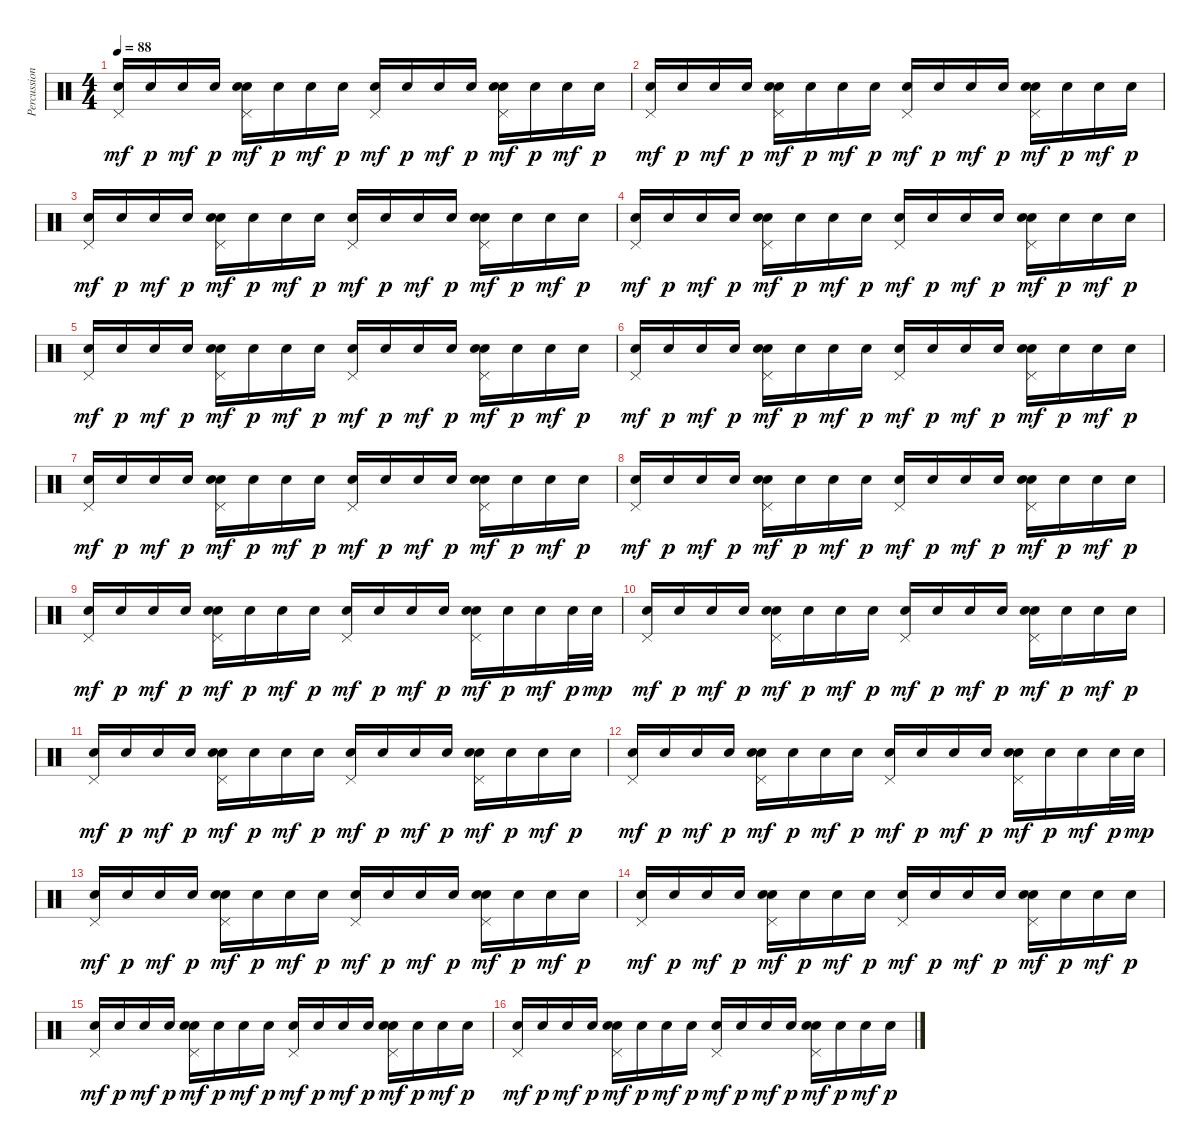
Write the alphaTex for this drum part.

\track ("Percussion" "Percussion") {instrument percussion}
\staff {score}
\articulation defaults
\ts (4 4)
\tempo 88
\clef neutral
\ks c
("Snare (hit) 2" "Pedal Hi-Hat (hit)").16{dy mf} "Snare (hit) 2".16{dy p} "Snare (hit) 2".16{dy mf} "Snare (hit) 2".16{dy p} ("Hand Clap (hit)" "Snare (hit) 2" "Pedal Hi-Hat (hit)").16{dy mf} "Snare (hit) 2".16{dy p} "Snare (hit) 2".16{dy mf} "Snare (hit) 2".16{dy p} ("Snare (hit) 2" "Pedal Hi-Hat (hit)").16{dy mf} "Snare (hit) 2".16{dy p} "Snare (hit) 2".16{dy mf} "Snare (hit) 2".16{dy p} ("Snare (hit) 2" "Hand Clap (hit)" "Pedal Hi-Hat (hit)").16{dy mf} "Snare (hit) 2".16{dy p} "Snare (hit) 2".16{dy mf} "Snare (hit) 2".16{dy p} |
("Snare (hit) 2" "Pedal Hi-Hat (hit)").16{dy mf} "Snare (hit) 2".16{dy p} "Snare (hit) 2".16{dy mf} "Snare (hit) 2".16{dy p} ("Hand Clap (hit)" "Snare (hit) 2" "Pedal Hi-Hat (hit)").16{dy mf} "Snare (hit) 2".16{dy p} "Snare (hit) 2".16{dy mf} "Snare (hit) 2".16{dy p} ("Snare (hit) 2" "Pedal Hi-Hat (hit)").16{dy mf} "Snare (hit) 2".16{dy p} "Snare (hit) 2".16{dy mf} "Snare (hit) 2".16{dy p} ("Snare (hit) 2" "Hand Clap (hit)" "Pedal Hi-Hat (hit)").16{dy mf} "Snare (hit) 2".16{dy p} "Snare (hit) 2".16{dy mf} "Snare (hit) 2".16{dy p} |
("Snare (hit) 2" "Pedal Hi-Hat (hit)").16{dy mf} "Snare (hit) 2".16{dy p} "Snare (hit) 2".16{dy mf} "Snare (hit) 2".16{dy p} ("Hand Clap (hit)" "Snare (hit) 2" "Pedal Hi-Hat (hit)").16{dy mf} "Snare (hit) 2".16{dy p} "Snare (hit) 2".16{dy mf} "Snare (hit) 2".16{dy p} ("Snare (hit) 2" "Pedal Hi-Hat (hit)").16{dy mf} "Snare (hit) 2".16{dy p} "Snare (hit) 2".16{dy mf} "Snare (hit) 2".16{dy p} ("Snare (hit) 2" "Hand Clap (hit)" "Pedal Hi-Hat (hit)").16{dy mf} "Snare (hit) 2".16{dy p} "Snare (hit) 2".16{dy mf} "Snare (hit) 2".16{dy p} |
("Snare (hit) 2" "Pedal Hi-Hat (hit)").16{dy mf} "Snare (hit) 2".16{dy p} "Snare (hit) 2".16{dy mf} "Snare (hit) 2".16{dy p} ("Hand Clap (hit)" "Snare (hit) 2" "Pedal Hi-Hat (hit)").16{dy mf} "Snare (hit) 2".16{dy p} "Snare (hit) 2".16{dy mf} "Snare (hit) 2".16{dy p} ("Snare (hit) 2" "Pedal Hi-Hat (hit)").16{dy mf} "Snare (hit) 2".16{dy p} "Snare (hit) 2".16{dy mf} "Snare (hit) 2".16{dy p} ("Snare (hit) 2" "Hand Clap (hit)" "Pedal Hi-Hat (hit)").16{dy mf} "Snare (hit) 2".16{dy p} "Snare (hit) 2".16{dy mf} "Snare (hit) 2".16{dy p} |
("Snare (hit) 2" "Pedal Hi-Hat (hit)").16{dy mf} "Snare (hit) 2".16{dy p} "Snare (hit) 2".16{dy mf} "Snare (hit) 2".16{dy p} ("Hand Clap (hit)" "Snare (hit) 2" "Pedal Hi-Hat (hit)").16{dy mf} "Snare (hit) 2".16{dy p} "Snare (hit) 2".16{dy mf} "Snare (hit) 2".16{dy p} ("Snare (hit) 2" "Pedal Hi-Hat (hit)").16{dy mf} "Snare (hit) 2".16{dy p} "Snare (hit) 2".16{dy mf} "Snare (hit) 2".16{dy p} ("Snare (hit) 2" "Hand Clap (hit)" "Pedal Hi-Hat (hit)").16{dy mf} "Snare (hit) 2".16{dy p} "Snare (hit) 2".16{dy mf} "Snare (hit) 2".16{dy p} |
("Snare (hit) 2" "Pedal Hi-Hat (hit)").16{dy mf} "Snare (hit) 2".16{dy p} "Snare (hit) 2".16{dy mf} "Snare (hit) 2".16{dy p} ("Hand Clap (hit)" "Snare (hit) 2" "Pedal Hi-Hat (hit)").16{dy mf} "Snare (hit) 2".16{dy p} "Snare (hit) 2".16{dy mf} "Snare (hit) 2".16{dy p} ("Snare (hit) 2" "Pedal Hi-Hat (hit)").16{dy mf} "Snare (hit) 2".16{dy p} "Snare (hit) 2".16{dy mf} "Snare (hit) 2".16{dy p} ("Snare (hit) 2" "Hand Clap (hit)" "Pedal Hi-Hat (hit)").16{dy mf} "Snare (hit) 2".16{dy p} "Snare (hit) 2".16{dy mf} "Snare (hit) 2".16{dy p} |
("Snare (hit) 2" "Pedal Hi-Hat (hit)").16{dy mf} "Snare (hit) 2".16{dy p} "Snare (hit) 2".16{dy mf} "Snare (hit) 2".16{dy p} ("Hand Clap (hit)" "Snare (hit) 2" "Pedal Hi-Hat (hit)").16{dy mf} "Snare (hit) 2".16{dy p} "Snare (hit) 2".16{dy mf} "Snare (hit) 2".16{dy p} ("Snare (hit) 2" "Pedal Hi-Hat (hit)").16{dy mf} "Snare (hit) 2".16{dy p} "Snare (hit) 2".16{dy mf} "Snare (hit) 2".16{dy p} ("Snare (hit) 2" "Hand Clap (hit)" "Pedal Hi-Hat (hit)").16{dy mf} "Snare (hit) 2".16{dy p} "Snare (hit) 2".16{dy mf} "Snare (hit) 2".16{dy p} |
("Snare (hit) 2" "Pedal Hi-Hat (hit)").16{dy mf} "Snare (hit) 2".16{dy p} "Snare (hit) 2".16{dy mf} "Snare (hit) 2".16{dy p} ("Hand Clap (hit)" "Snare (hit) 2" "Pedal Hi-Hat (hit)").16{dy mf} "Snare (hit) 2".16{dy p} "Snare (hit) 2".16{dy mf} "Snare (hit) 2".16{dy p} ("Snare (hit) 2" "Pedal Hi-Hat (hit)").16{dy mf} "Snare (hit) 2".16{dy p} "Snare (hit) 2".16{dy mf} "Snare (hit) 2".16{dy p} ("Snare (hit) 2" "Hand Clap (hit)" "Pedal Hi-Hat (hit)").16{dy mf} "Snare (hit) 2".16{dy p} "Snare (hit) 2".16{dy mf} "Snare (hit) 2".16{dy p} |
("Snare (hit) 2" "Pedal Hi-Hat (hit)").16{dy mf} "Snare (hit) 2".16{dy p} "Snare (hit) 2".16{dy mf} "Snare (hit) 2".16{dy p} ("Hand Clap (hit)" "Snare (hit) 2" "Pedal Hi-Hat (hit)").16{dy mf} "Snare (hit) 2".16{dy p} "Snare (hit) 2".16{dy mf} "Snare (hit) 2".16{dy p} ("Snare (hit) 2" "Pedal Hi-Hat (hit)").16{dy mf} "Snare (hit) 2".16{dy p} "Snare (hit) 2".16{dy mf} "Snare (hit) 2".16{dy p} ("Snare (hit) 2" "Hand Clap (hit)" "Pedal Hi-Hat (hit)").16{dy mf} "Snare (hit) 2".16{dy p} "Snare (hit) 2".16{dy mf} "Snare (hit) 2".32{dy p} "Snare (hit) 2".32{dy mp} |
("Snare (hit) 2" "Pedal Hi-Hat (hit)").16{dy mf} "Snare (hit) 2".16{dy p} "Snare (hit) 2".16{dy mf} "Snare (hit) 2".16{dy p} ("Hand Clap (hit)" "Snare (hit) 2" "Pedal Hi-Hat (hit)").16{dy mf} "Snare (hit) 2".16{dy p} "Snare (hit) 2".16{dy mf} "Snare (hit) 2".16{dy p} ("Snare (hit) 2" "Pedal Hi-Hat (hit)").16{dy mf} "Snare (hit) 2".16{dy p} "Snare (hit) 2".16{dy mf} "Snare (hit) 2".16{dy p} ("Snare (hit) 2" "Hand Clap (hit)" "Pedal Hi-Hat (hit)").16{dy mf} "Snare (hit) 2".16{dy p} "Snare (hit) 2".16{dy mf} "Snare (hit) 2".16{dy p} |
("Snare (hit) 2" "Pedal Hi-Hat (hit)").16{dy mf} "Snare (hit) 2".16{dy p} "Snare (hit) 2".16{dy mf} "Snare (hit) 2".16{dy p} ("Hand Clap (hit)" "Snare (hit) 2" "Pedal Hi-Hat (hit)").16{dy mf} "Snare (hit) 2".16{dy p} "Snare (hit) 2".16{dy mf} "Snare (hit) 2".16{dy p} ("Snare (hit) 2" "Pedal Hi-Hat (hit)").16{dy mf} "Snare (hit) 2".16{dy p} "Snare (hit) 2".16{dy mf} "Snare (hit) 2".16{dy p} ("Snare (hit) 2" "Hand Clap (hit)" "Pedal Hi-Hat (hit)").16{dy mf} "Snare (hit) 2".16{dy p} "Snare (hit) 2".16{dy mf} "Snare (hit) 2".16{dy p} |
("Snare (hit) 2" "Pedal Hi-Hat (hit)").16{dy mf} "Snare (hit) 2".16{dy p} "Snare (hit) 2".16{dy mf} "Snare (hit) 2".16{dy p} ("Hand Clap (hit)" "Snare (hit) 2" "Pedal Hi-Hat (hit)").16{dy mf} "Snare (hit) 2".16{dy p} "Snare (hit) 2".16{dy mf} "Snare (hit) 2".16{dy p} ("Snare (hit) 2" "Pedal Hi-Hat (hit)").16{dy mf} "Snare (hit) 2".16{dy p} "Snare (hit) 2".16{dy mf} "Snare (hit) 2".16{dy p} ("Snare (hit) 2" "Hand Clap (hit)" "Pedal Hi-Hat (hit)").16{dy mf} "Snare (hit) 2".16{dy p} "Snare (hit) 2".16{dy mf} "Snare (hit) 2".32{dy p} "Snare (hit) 2".32{dy mp} |
("Snare (hit) 2" "Pedal Hi-Hat (hit)").16{dy mf} "Snare (hit) 2".16{dy p} "Snare (hit) 2".16{dy mf} "Snare (hit) 2".16{dy p} ("Hand Clap (hit)" "Snare (hit) 2" "Pedal Hi-Hat (hit)").16{dy mf} "Snare (hit) 2".16{dy p} "Snare (hit) 2".16{dy mf} "Snare (hit) 2".16{dy p} ("Snare (hit) 2" "Pedal Hi-Hat (hit)").16{dy mf} "Snare (hit) 2".16{dy p} "Snare (hit) 2".16{dy mf} "Snare (hit) 2".16{dy p} ("Snare (hit) 2" "Hand Clap (hit)" "Pedal Hi-Hat (hit)").16{dy mf} "Snare (hit) 2".16{dy p} "Snare (hit) 2".16{dy mf} "Snare (hit) 2".16{dy p} |
("Snare (hit) 2" "Pedal Hi-Hat (hit)").16{dy mf} "Snare (hit) 2".16{dy p} "Snare (hit) 2".16{dy mf} "Snare (hit) 2".16{dy p} ("Hand Clap (hit)" "Snare (hit) 2" "Pedal Hi-Hat (hit)").16{dy mf} "Snare (hit) 2".16{dy p} "Snare (hit) 2".16{dy mf} "Snare (hit) 2".16{dy p} ("Snare (hit) 2" "Pedal Hi-Hat (hit)").16{dy mf} "Snare (hit) 2".16{dy p} "Snare (hit) 2".16{dy mf} "Snare (hit) 2".16{dy p} ("Snare (hit) 2" "Hand Clap (hit)" "Pedal Hi-Hat (hit)").16{dy mf} "Snare (hit) 2".16{dy p} "Snare (hit) 2".16{dy mf} "Snare (hit) 2".16{dy p} |
("Snare (hit) 2" "Pedal Hi-Hat (hit)").16{dy mf} "Snare (hit) 2".16{dy p} "Snare (hit) 2".16{dy mf} "Snare (hit) 2".16{dy p} ("Hand Clap (hit)" "Snare (hit) 2" "Pedal Hi-Hat (hit)").16{dy mf} "Snare (hit) 2".16{dy p} "Snare (hit) 2".16{dy mf} "Snare (hit) 2".16{dy p} ("Snare (hit) 2" "Pedal Hi-Hat (hit)").16{dy mf} "Snare (hit) 2".16{dy p} "Snare (hit) 2".16{dy mf} "Snare (hit) 2".16{dy p} ("Snare (hit) 2" "Hand Clap (hit)" "Pedal Hi-Hat (hit)").16{dy mf} "Snare (hit) 2".16{dy p} "Snare (hit) 2".16{dy mf} "Snare (hit) 2".16{dy p} |
("Snare (hit) 2" "Pedal Hi-Hat (hit)").16{dy mf} "Snare (hit) 2".16{dy p} "Snare (hit) 2".16{dy mf} "Snare (hit) 2".16{dy p} ("Hand Clap (hit)" "Snare (hit) 2" "Pedal Hi-Hat (hit)").16{dy mf} "Snare (hit) 2".16{dy p} "Snare (hit) 2".16{dy mf} "Snare (hit) 2".16{dy p} ("Snare (hit) 2" "Pedal Hi-Hat (hit)").16{dy mf} "Snare (hit) 2".16{dy p} "Snare (hit) 2".16{dy mf} "Snare (hit) 2".16{dy p} ("Snare (hit) 2" "Hand Clap (hit)" "Pedal Hi-Hat (hit)").16{dy mf} "Snare (hit) 2".16{dy p} "Snare (hit) 2".16{dy mf} "Snare (hit) 2".16{dy p}
